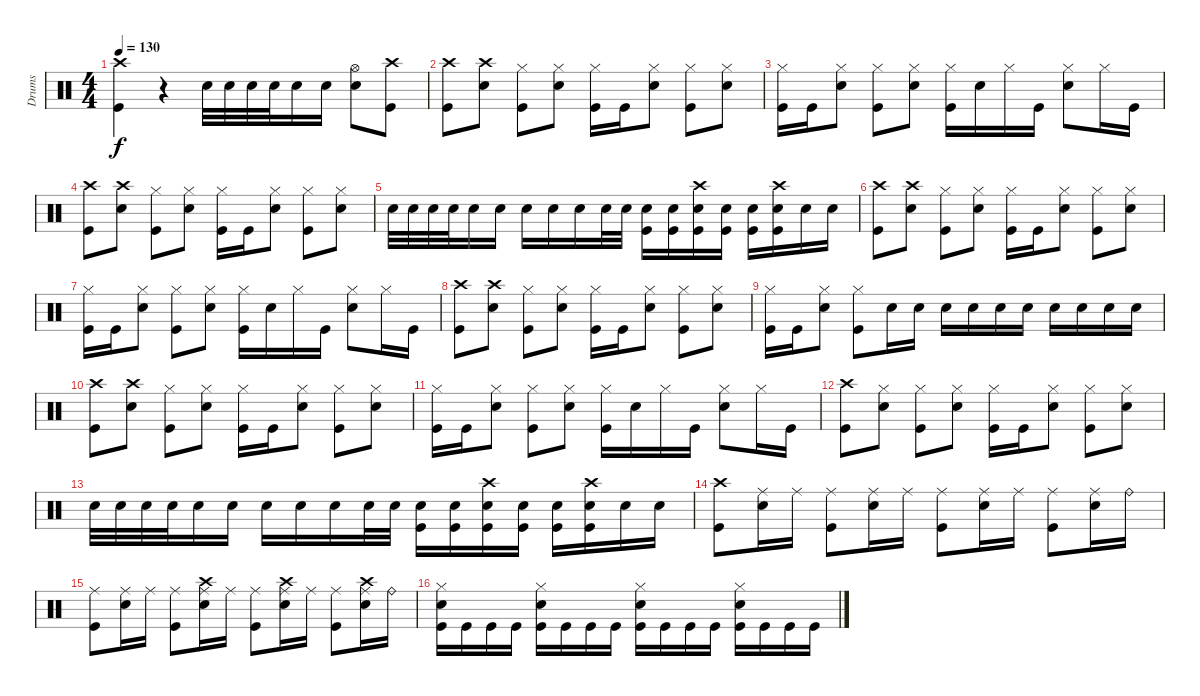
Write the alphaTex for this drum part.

\track ("Drums" "Drums") {instrument percussion}
\staff {score}
\articulation defaults
\ts (4 4)
\tempo 130
\clef neutral
\ks c
("Crash high (hit)" "Kick (hit)").4{dy f} r.4 "Snare (hit) 2".32 "Snare (hit) 2".32 "Snare (hit) 2".32 "Snare (hit) 2".32 "Snare (hit) 2".16 "Snare (hit) 2".16 ("Snare (hit) 2" "Hi-Hat (open)").8 ("Crash high (hit)" "Kick (hit)").8 |
("Crash high (hit)" "Kick (hit)").8 ("Crash high (hit)" "Snare (hit) 2").8 ("Hi-Hat (closed)" "Kick (hit)").8 ("Hi-Hat (closed)" "Snare (hit) 2").8 ("Hi-Hat (closed)" "Kick (hit)").16 "Kick (hit)".16 ("Hi-Hat (closed)" "Snare (hit) 2").8 ("Hi-Hat (closed)" "Kick (hit)").8 ("Hi-Hat (closed)" "Snare (hit) 2").8 |
("Hi-Hat (closed)" "Kick (hit)").16 "Kick (hit)".16 ("Hi-Hat (closed)" "Snare (hit) 2").8 ("Hi-Hat (closed)" "Kick (hit)").8 ("Hi-Hat (closed)" "Snare (hit) 2").8 ("Hi-Hat (closed)" "Kick (hit)").16 "Snare (hit) 2".16 "Hi-Hat (closed)".16 "Kick (hit)".16 ("Hi-Hat (closed)" "Snare (hit) 2").8 "Hi-Hat (closed)".16 "Kick (hit)".16 |
("Crash high (hit)" "Kick (hit)").8 ("Crash high (hit)" "Snare (hit) 2").8 ("Hi-Hat (closed)" "Kick (hit)").8 ("Hi-Hat (closed)" "Snare (hit) 2").8 ("Hi-Hat (closed)" "Kick (hit)").16 "Kick (hit)".16 ("Hi-Hat (closed)" "Snare (hit) 2").8 ("Hi-Hat (closed)" "Kick (hit)").8 ("Hi-Hat (closed)" "Snare (hit) 2").8 |
"Snare (hit) 2".32 "Snare (hit) 2".32 "Snare (hit) 2".32 "Snare (hit) 2".32 "Snare (hit) 2".16 "Snare (hit) 2".16 "Snare (hit) 2".16 "Snare (hit) 2".16 "Snare (hit) 2".16 "Snare (hit) 2".32 "Snare (hit) 2".32 ("Snare (hit) 2" "Kick (hit)").16 ("Snare (hit) 2" "Kick (hit)").16 ("Crash high (hit)" "Kick (hit)" "Snare (hit) 2").16 ("Kick (hit)" "Snare (hit) 2").16 ("Snare (hit) 2" "Kick (hit)").16 ("Crash high (hit)" "Kick (hit)" "Snare (hit) 2").16 "Snare (hit) 2".16 "Snare (hit) 2".16 |
("Crash high (hit)" "Kick (hit)").8 ("Crash high (hit)" "Snare (hit) 2").8 ("Hi-Hat (closed)" "Kick (hit)").8 ("Hi-Hat (closed)" "Snare (hit) 2").8 ("Hi-Hat (closed)" "Kick (hit)").16 "Kick (hit)".16 ("Hi-Hat (closed)" "Snare (hit) 2").8 ("Hi-Hat (closed)" "Kick (hit)").8 ("Hi-Hat (closed)" "Snare (hit) 2").8 |
("Hi-Hat (closed)" "Kick (hit)").16 "Kick (hit)".16 ("Hi-Hat (closed)" "Snare (hit) 2").8 ("Hi-Hat (closed)" "Kick (hit)").8 ("Hi-Hat (closed)" "Snare (hit) 2").8 ("Hi-Hat (closed)" "Kick (hit)").16 "Snare (hit) 2".16 "Hi-Hat (closed)".16 "Kick (hit)".16 ("Hi-Hat (closed)" "Snare (hit) 2").8 "Hi-Hat (closed)".16 "Kick (hit)".16 |
("Crash high (hit)" "Kick (hit)").8 ("Crash high (hit)" "Snare (hit) 2").8 ("Hi-Hat (closed)" "Kick (hit)").8 ("Hi-Hat (closed)" "Snare (hit) 2").8 ("Hi-Hat (closed)" "Kick (hit)").16 "Kick (hit)".16 ("Hi-Hat (closed)" "Snare (hit) 2").8 ("Hi-Hat (closed)" "Kick (hit)").8 ("Hi-Hat (closed)" "Snare (hit) 2").8 |
("Hi-Hat (closed)" "Kick (hit)").16 "Kick (hit)".16 ("Hi-Hat (closed)" "Snare (hit) 2").8 ("Hi-Hat (closed)" "Kick (hit)").8 "Snare (hit) 2".16 "Snare (hit) 2".16 "Snare (hit) 2".16 "Snare (hit) 2".16 "Snare (hit) 2".16 "Snare (hit) 2".16 "Snare (hit) 2".16 "Snare (hit) 2".16 "Snare (hit) 2".16 "Snare (hit) 2".16 |
("Crash high (hit)" "Kick (hit)").8 ("Crash high (hit)" "Snare (hit) 2").8 ("Hi-Hat (closed)" "Kick (hit)").8 ("Hi-Hat (closed)" "Snare (hit) 2").8 ("Hi-Hat (closed)" "Kick (hit)").16 "Kick (hit)".16 ("Hi-Hat (closed)" "Snare (hit) 2").8 ("Hi-Hat (closed)" "Kick (hit)").8 ("Hi-Hat (closed)" "Snare (hit) 2").8 |
("Hi-Hat (closed)" "Kick (hit)").16 "Kick (hit)".16 ("Hi-Hat (closed)" "Snare (hit) 2").8 ("Hi-Hat (closed)" "Kick (hit)").8 ("Hi-Hat (closed)" "Snare (hit) 2").8 ("Hi-Hat (closed)" "Kick (hit)").16 "Snare (hit) 2".16 "Hi-Hat (closed)".16 "Kick (hit)".16 ("Hi-Hat (closed)" "Snare (hit) 2").8 "Hi-Hat (closed)".16 "Kick (hit)".16 |
("Crash high (hit)" "Kick (hit)").8 ("Hi-Hat (closed)" "Snare (hit) 2").8 ("Hi-Hat (closed)" "Kick (hit)").8 ("Hi-Hat (closed)" "Snare (hit) 2").8 ("Hi-Hat (closed)" "Kick (hit)").16 "Kick (hit)".16 ("Hi-Hat (closed)" "Snare (hit) 2").8 ("Hi-Hat (closed)" "Kick (hit)").8 ("Hi-Hat (closed)" "Snare (hit) 2").8 |
"Snare (hit) 2".32 "Snare (hit) 2".32 "Snare (hit) 2".32 "Snare (hit) 2".32 "Snare (hit) 2".16 "Snare (hit) 2".16 "Snare (hit) 2".16 "Snare (hit) 2".16 "Snare (hit) 2".16 "Snare (hit) 2".32 "Snare (hit) 2".32 ("Snare (hit) 2" "Kick (hit)").16 ("Snare (hit) 2" "Kick (hit)").16 ("Crash high (hit)" "Kick (hit)" "Snare (hit) 2").16 ("Kick (hit)" "Snare (hit) 2").16 ("Snare (hit) 2" "Kick (hit)").16 ("Crash high (hit)" "Kick (hit)" "Snare (hit) 2").16 "Snare (hit) 2".16 "Snare (hit) 2".16 |
("Crash high (hit)" "Kick (hit)").8 ("Ride (middle)" "Snare (hit) 2").16 "Ride (middle)".16 ("Ride (middle)" "Kick (hit)").8 ("Ride (middle)" "Snare (hit) 2").16 "Ride (middle)".16 ("Ride (middle)" "Kick (hit)").8 ("Ride (middle)" "Snare (hit) 2").16 "Ride (middle)".16 ("Ride (middle)" "Kick (hit)").8 ("Ride (middle)" "Snare (hit) 2").16 "Ride (bell)".16 |
("Ride (middle)" "Kick (hit)").8 ("Ride (middle)" "Snare (hit) 2").16 "Ride (middle)".16 ("Ride (middle)" "Kick (hit)").8 ("Ride (middle)" "Snare (hit) 2" "Crash high (hit)").16 "Ride (middle)".16 ("Ride (middle)" "Kick (hit)").8 ("Ride (middle)" "Snare (hit) 2" "Crash high (hit)").16 "Ride (middle)".16 ("Ride (middle)" "Kick (hit)").8 ("Ride (middle)" "Snare (hit) 2" "Crash high (hit)").16 "Ride (bell)".16 |
("Kick (hit)" "Snare (hit) 2" "Hi-Hat (closed)").16 "Kick (hit)".16 "Kick (hit)".16 "Kick (hit)".16 ("Kick (hit)" "Snare (hit) 2" "Hi-Hat (closed)").16 "Kick (hit)".16 "Kick (hit)".16 "Kick (hit)".16 ("Kick (hit)" "Snare (hit) 2" "Hi-Hat (closed)").16 "Kick (hit)".16 "Kick (hit)".16 "Kick (hit)".16 ("Kick (hit)" "Snare (hit) 2" "Hi-Hat (closed)").16 "Kick (hit)".16 "Kick (hit)".16 "Kick (hit)".16
